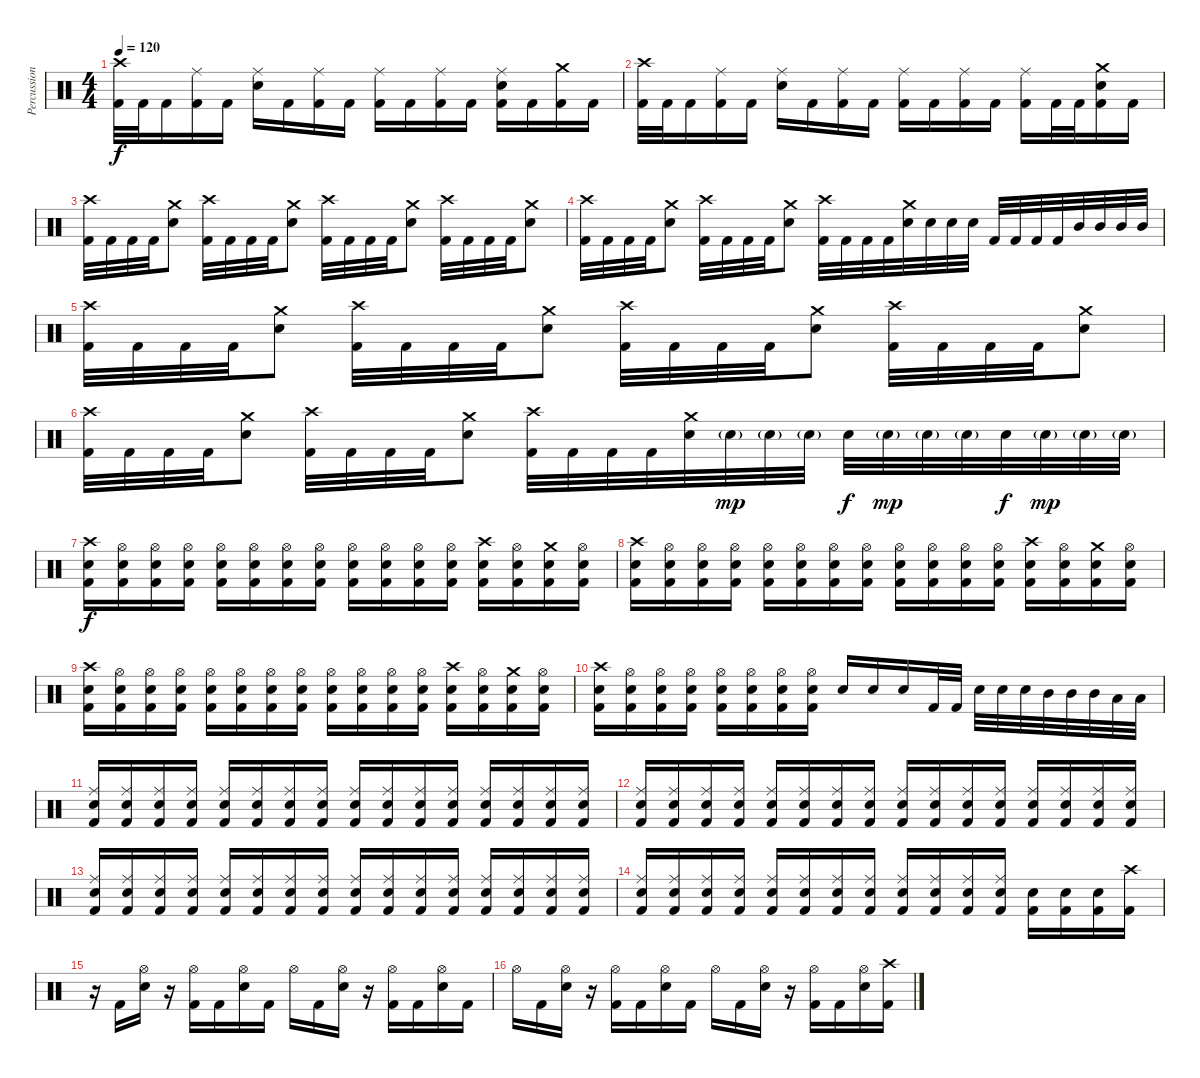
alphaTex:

\track ("Percussion" "Percussion") {instrument percussion}
\staff {score}
\articulation defaults
\ts (4 4)
\tempo 120
\clef neutral
\ks c
("Crash high (hit)" "Kick (hit) 2").32{dy f} "Kick (hit) 2".32 "Kick (hit) 2".16 ("Ride (middle)" "Kick (hit) 2").16 "Kick (hit) 2".16 ("Ride (middle)" "Electric Snare (hit)").16 "Kick (hit) 2".16 ("Ride (middle)" "Kick (hit) 2").16 "Kick (hit) 2".16 ("Ride (middle)" "Kick (hit) 2").16 "Kick (hit) 2".16 ("Ride (middle)" "Kick (hit) 2").16 "Kick (hit) 2".16 ("Ride (middle)" "Electric Snare (hit)" "Kick (hit) 2").16 "Kick (hit) 2".16 ("Crash medium (hit)" "Kick (hit) 2").16 "Kick (hit) 2".16 |
("Crash high (hit)" "Kick (hit) 2").32 "Kick (hit) 2".32 "Kick (hit) 2".16 ("Ride (middle)" "Kick (hit) 2").16 "Kick (hit) 2".16 ("Ride (middle)" "Electric Snare (hit)").16 "Kick (hit) 2".16 ("Ride (middle)" "Kick (hit) 2").16 "Kick (hit) 2".16 ("Ride (middle)" "Kick (hit) 2").16 "Kick (hit) 2".16 ("Ride (middle)" "Kick (hit) 2").16 "Kick (hit) 2".16 ("Ride (middle)" "Kick (hit) 2").16 "Kick (hit) 2".32 "Kick (hit) 2".32 ("Crash medium (hit)" "Electric Snare (hit)" "Kick (hit) 2").16 "Kick (hit) 2".16 |
("Crash high (hit)" "Kick (hit) 2").32 "Kick (hit) 2".32 "Kick (hit) 2".32 "Kick (hit) 2".32 ("Crash medium (hit)" "Electric Snare (hit)").8 ("Crash high (hit)" "Kick (hit) 2").32 "Kick (hit) 2".32 "Kick (hit) 2".32 "Kick (hit) 2".32 ("Crash medium (hit)" "Electric Snare (hit)").8 ("Crash high (hit)" "Kick (hit) 2").32 "Kick (hit) 2".32 "Kick (hit) 2".32 "Kick (hit) 2".32 ("Crash medium (hit)" "Electric Snare (hit)").8 ("Crash high (hit)" "Kick (hit) 2").32 "Kick (hit) 2".32 "Kick (hit) 2".32 "Kick (hit) 2".32 ("Crash medium (hit)" "Electric Snare (hit)").8 |
("Crash high (hit)" "Kick (hit) 2").32 "Kick (hit) 2".32 "Kick (hit) 2".32 "Kick (hit) 2".32 ("Crash medium (hit)" "Electric Snare (hit)").8 ("Crash high (hit)" "Kick (hit) 2").32 "Kick (hit) 2".32 "Kick (hit) 2".32 "Kick (hit) 2".32 ("Crash medium (hit)" "Electric Snare (hit)").8 ("Crash high (hit)" "Kick (hit) 2").32 "Kick (hit) 2".32 "Kick (hit) 2".32 "Kick (hit) 2".32 ("Crash medium (hit)" "Electric Snare (hit)").32 "Electric Snare (hit)".32 "Electric Snare (hit)".32 "Electric Snare (hit)".32 "Kick (hit) 2".32 "Kick (hit) 2".32 "Kick (hit) 2".32 "Kick (hit) 2".32 "Mid Tom (hit)".32 "Mid Tom (hit)".32 "Mid Tom (hit)".32 "Mid Tom (hit)".32 |
("Crash high (hit)" "Kick (hit) 2").32 "Kick (hit) 2".32 "Kick (hit) 2".32 "Kick (hit) 2".32 ("Crash medium (hit)" "Electric Snare (hit)").8 ("Crash high (hit)" "Kick (hit) 2").32 "Kick (hit) 2".32 "Kick (hit) 2".32 "Kick (hit) 2".32 ("Crash medium (hit)" "Electric Snare (hit)").8 ("Crash high (hit)" "Kick (hit) 2").32 "Kick (hit) 2".32 "Kick (hit) 2".32 "Kick (hit) 2".32 ("Crash medium (hit)" "Electric Snare (hit)").8 ("Crash high (hit)" "Kick (hit) 2").32 "Kick (hit) 2".32 "Kick (hit) 2".32 "Kick (hit) 2".32 ("Crash medium (hit)" "Electric Snare (hit)").8 |
("Crash high (hit)" "Kick (hit) 2").32 "Kick (hit) 2".32 "Kick (hit) 2".32 "Kick (hit) 2".32 ("Crash medium (hit)" "Electric Snare (hit)").8 ("Crash high (hit)" "Kick (hit) 2").32 "Kick (hit) 2".32 "Kick (hit) 2".32 "Kick (hit) 2".32 ("Crash medium (hit)" "Electric Snare (hit)").8 ("Crash high (hit)" "Kick (hit) 2").32 "Kick (hit) 2".32 "Kick (hit) 2".32 "Kick (hit) 2".32 ("Crash medium (hit)" "Electric Snare (hit)").32 "Electric Snare (hit)"{g}.32{dy mp} "Electric Snare (hit)"{g}.32 "Electric Snare (hit)"{g}.32 "Electric Snare (hit)".32{dy f} "Electric Snare (hit)"{g}.32{dy mp} "Electric Snare (hit)"{g}.32 "Electric Snare (hit)"{g}.32 "Electric Snare (hit)".32{dy f} "Electric Snare (hit)"{g}.32{dy mp} "Electric Snare (hit)"{g}.32 "Electric Snare (hit)"{g}.32 |
("Crash high (hit)" "Electric Snare (hit)" "Kick (hit) 2").16{dy f} ("Hi-Hat (open)" "Electric Snare (hit)" "Kick (hit) 2").16 ("Hi-Hat (open)" "Electric Snare (hit)" "Kick (hit) 2").16 ("Hi-Hat (open)" "Electric Snare (hit)" "Kick (hit) 2").16 ("Hi-Hat (open)" "Electric Snare (hit)" "Kick (hit) 2").16 ("Hi-Hat (open)" "Electric Snare (hit)" "Kick (hit) 2").16 ("Hi-Hat (open)" "Electric Snare (hit)" "Kick (hit) 2").16 ("Hi-Hat (open)" "Electric Snare (hit)" "Kick (hit) 2").16 ("Hi-Hat (open)" "Electric Snare (hit)" "Kick (hit) 2").16 ("Hi-Hat (open)" "Electric Snare (hit)" "Kick (hit) 2").16 ("Hi-Hat (open)" "Electric Snare (hit)" "Kick (hit) 2").16 ("Hi-Hat (open)" "Electric Snare (hit)" "Kick (hit) 2").16 ("Crash high (hit)" "Electric Snare (hit)" "Kick (hit) 2").16 ("Hi-Hat (open)" "Electric Snare (hit)" "Kick (hit) 2").16 ("Crash medium (hit)" "Electric Snare (hit)" "Kick (hit) 2").16 ("Hi-Hat (open)" "Electric Snare (hit)" "Kick (hit) 2").16 |
("Crash high (hit)" "Electric Snare (hit)" "Kick (hit) 2").16 ("Hi-Hat (open)" "Electric Snare (hit)" "Kick (hit) 2").16 ("Hi-Hat (open)" "Electric Snare (hit)" "Kick (hit) 2").16 ("Hi-Hat (open)" "Electric Snare (hit)" "Kick (hit) 2").16 ("Hi-Hat (open)" "Electric Snare (hit)" "Kick (hit) 2").16 ("Hi-Hat (open)" "Electric Snare (hit)" "Kick (hit) 2").16 ("Hi-Hat (open)" "Electric Snare (hit)" "Kick (hit) 2").16 ("Hi-Hat (open)" "Electric Snare (hit)" "Kick (hit) 2").16 ("Hi-Hat (open)" "Electric Snare (hit)" "Kick (hit) 2").16 ("Hi-Hat (open)" "Electric Snare (hit)" "Kick (hit) 2").16 ("Hi-Hat (open)" "Electric Snare (hit)" "Kick (hit) 2").16 ("Hi-Hat (open)" "Electric Snare (hit)" "Kick (hit) 2").16 ("Crash high (hit)" "Electric Snare (hit)" "Kick (hit) 2").16 ("Hi-Hat (open)" "Electric Snare (hit)" "Kick (hit) 2").16 ("Crash medium (hit)" "Electric Snare (hit)" "Kick (hit) 2").16 ("Hi-Hat (open)" "Electric Snare (hit)" "Kick (hit) 2").16 |
("Crash high (hit)" "Electric Snare (hit)" "Kick (hit) 2").16 ("Hi-Hat (open)" "Electric Snare (hit)" "Kick (hit) 2").16 ("Hi-Hat (open)" "Electric Snare (hit)" "Kick (hit) 2").16 ("Hi-Hat (open)" "Electric Snare (hit)" "Kick (hit) 2").16 ("Hi-Hat (open)" "Electric Snare (hit)" "Kick (hit) 2").16 ("Hi-Hat (open)" "Electric Snare (hit)" "Kick (hit) 2").16 ("Hi-Hat (open)" "Electric Snare (hit)" "Kick (hit) 2").16 ("Hi-Hat (open)" "Electric Snare (hit)" "Kick (hit) 2").16 ("Hi-Hat (open)" "Electric Snare (hit)" "Kick (hit) 2").16 ("Hi-Hat (open)" "Electric Snare (hit)" "Kick (hit) 2").16 ("Hi-Hat (open)" "Electric Snare (hit)" "Kick (hit) 2").16 ("Hi-Hat (open)" "Electric Snare (hit)" "Kick (hit) 2").16 ("Crash high (hit)" "Electric Snare (hit)" "Kick (hit) 2").16 ("Hi-Hat (open)" "Electric Snare (hit)" "Kick (hit) 2").16 ("Crash medium (hit)" "Electric Snare (hit)" "Kick (hit) 2").16 ("Hi-Hat (open)" "Electric Snare (hit)" "Kick (hit) 2").16 |
("Crash high (hit)" "Electric Snare (hit)" "Kick (hit) 2").16 ("Hi-Hat (open)" "Electric Snare (hit)" "Kick (hit) 2").16 ("Hi-Hat (open)" "Electric Snare (hit)" "Kick (hit) 2").16 ("Hi-Hat (open)" "Electric Snare (hit)" "Kick (hit) 2").16 ("Hi-Hat (open)" "Electric Snare (hit)" "Kick (hit) 2").16 ("Hi-Hat (open)" "Electric Snare (hit)" "Kick (hit) 2").16 ("Hi-Hat (open)" "Electric Snare (hit)" "Kick (hit) 2").16 ("Hi-Hat (open)" "Electric Snare (hit)" "Kick (hit) 2").16 "Electric Snare (hit)".16 "Electric Snare (hit)".16 "Electric Snare (hit)".16 "Kick (hit) 2".32 "Kick (hit) 2".32 "Electric Snare (hit)".32 "Electric Snare (hit)".32 "Electric Snare (hit)".32 "Mid Tom (hit)".32 "Mid Tom (hit)".32 "Mid Tom (hit)".32 "Low Tom (hit)".32 "Low Tom (hit)".32 |
("Ride (middle)" "Electric Snare (hit)" "Kick (hit) 2").16 ("Ride (middle)" "Electric Snare (hit)" "Kick (hit) 2").16 ("Ride (middle)" "Electric Snare (hit)" "Kick (hit) 2").16 ("Ride (middle)" "Electric Snare (hit)" "Kick (hit) 2").16 ("Ride (middle)" "Electric Snare (hit)" "Kick (hit) 2").16 ("Ride (middle)" "Electric Snare (hit)" "Kick (hit) 2").16 ("Ride (middle)" "Electric Snare (hit)" "Kick (hit) 2").16 ("Ride (middle)" "Electric Snare (hit)" "Kick (hit) 2").16 ("Ride (middle)" "Electric Snare (hit)" "Kick (hit) 2").16 ("Ride (middle)" "Electric Snare (hit)" "Kick (hit) 2").16 ("Ride (middle)" "Electric Snare (hit)" "Kick (hit) 2").16 ("Ride (middle)" "Electric Snare (hit)" "Kick (hit) 2").16 ("Ride (middle)" "Electric Snare (hit)" "Kick (hit) 2").16 ("Ride (middle)" "Electric Snare (hit)" "Kick (hit) 2").16 ("Ride (middle)" "Electric Snare (hit)" "Kick (hit) 2").16 ("Ride (middle)" "Electric Snare (hit)" "Kick (hit) 2").16 |
("Ride (middle)" "Electric Snare (hit)" "Kick (hit) 2").16 ("Ride (middle)" "Electric Snare (hit)" "Kick (hit) 2").16 ("Ride (middle)" "Electric Snare (hit)" "Kick (hit) 2").16 ("Ride (middle)" "Electric Snare (hit)" "Kick (hit) 2").16 ("Ride (middle)" "Electric Snare (hit)" "Kick (hit) 2").16 ("Ride (middle)" "Electric Snare (hit)" "Kick (hit) 2").16 ("Ride (middle)" "Electric Snare (hit)" "Kick (hit) 2").16 ("Ride (middle)" "Electric Snare (hit)" "Kick (hit) 2").16 ("Ride (middle)" "Electric Snare (hit)" "Kick (hit) 2").16 ("Ride (middle)" "Electric Snare (hit)" "Kick (hit) 2").16 ("Ride (middle)" "Electric Snare (hit)" "Kick (hit) 2").16 ("Ride (middle)" "Electric Snare (hit)" "Kick (hit) 2").16 ("Ride (middle)" "Electric Snare (hit)" "Kick (hit) 2").16 ("Ride (middle)" "Electric Snare (hit)" "Kick (hit) 2").16 ("Ride (middle)" "Electric Snare (hit)" "Kick (hit) 2").16 ("Ride (middle)" "Electric Snare (hit)" "Kick (hit) 2").16 |
("Ride (middle)" "Electric Snare (hit)" "Kick (hit) 2").16 ("Ride (middle)" "Electric Snare (hit)" "Kick (hit) 2").16 ("Ride (middle)" "Electric Snare (hit)" "Kick (hit) 2").16 ("Ride (middle)" "Electric Snare (hit)" "Kick (hit) 2").16 ("Ride (middle)" "Electric Snare (hit)" "Kick (hit) 2").16 ("Ride (middle)" "Electric Snare (hit)" "Kick (hit) 2").16 ("Ride (middle)" "Electric Snare (hit)" "Kick (hit) 2").16 ("Ride (middle)" "Electric Snare (hit)" "Kick (hit) 2").16 ("Ride (middle)" "Electric Snare (hit)" "Kick (hit) 2").16 ("Ride (middle)" "Electric Snare (hit)" "Kick (hit) 2").16 ("Ride (middle)" "Electric Snare (hit)" "Kick (hit) 2").16 ("Ride (middle)" "Electric Snare (hit)" "Kick (hit) 2").16 ("Ride (middle)" "Electric Snare (hit)" "Kick (hit) 2").16 ("Ride (middle)" "Electric Snare (hit)" "Kick (hit) 2").16 ("Ride (middle)" "Electric Snare (hit)" "Kick (hit) 2").16 ("Ride (middle)" "Electric Snare (hit)" "Kick (hit) 2").16 |
("Ride (middle)" "Electric Snare (hit)" "Kick (hit) 2").16 ("Ride (middle)" "Electric Snare (hit)" "Kick (hit) 2").16 ("Ride (middle)" "Electric Snare (hit)" "Kick (hit) 2").16 ("Ride (middle)" "Electric Snare (hit)" "Kick (hit) 2").16 ("Ride (middle)" "Electric Snare (hit)" "Kick (hit) 2").16 ("Ride (middle)" "Electric Snare (hit)" "Kick (hit) 2").16 ("Ride (middle)" "Electric Snare (hit)" "Kick (hit) 2").16 ("Ride (middle)" "Electric Snare (hit)" "Kick (hit) 2").16 ("Ride (middle)" "Electric Snare (hit)" "Kick (hit) 2").16 ("Ride (middle)" "Electric Snare (hit)" "Kick (hit) 2").16 ("Ride (middle)" "Electric Snare (hit)" "Kick (hit) 2").16 ("Ride (middle)" "Electric Snare (hit)" "Kick (hit) 2").16 ("Electric Snare (hit)" "Kick (hit) 2").16 ("Electric Snare (hit)" "Kick (hit) 2").16 ("Electric Snare (hit)" "Kick (hit) 2").16 ("Crash high (hit)" "Kick (hit) 2").16 |
r.16 "Kick (hit) 2".16 ("Hi-Hat (open)" "Electric Snare (hit)").16 r.16 ("Hi-Hat (open)" "Kick (hit) 2").16 "Kick (hit) 2".16 ("Hi-Hat (open)" "Electric Snare (hit)").16 "Kick (hit) 2".16 "Hi-Hat (open)".16 "Kick (hit) 2".16 ("Hi-Hat (open)" "Electric Snare (hit)").16 r.16 ("Hi-Hat (open)" "Kick (hit) 2").16 "Kick (hit) 2".16 ("Hi-Hat (open)" "Electric Snare (hit)").16 "Kick (hit) 2".16 |
"Hi-Hat (open)".16 "Kick (hit) 2".16 ("Hi-Hat (open)" "Electric Snare (hit)").16 r.16 ("Hi-Hat (open)" "Kick (hit) 2").16 "Kick (hit) 2".16 ("Hi-Hat (open)" "Electric Snare (hit)").16 "Kick (hit) 2".16 "Hi-Hat (open)".16 "Kick (hit) 2".16 ("Hi-Hat (open)" "Electric Snare (hit)").16 r.16 ("Hi-Hat (open)" "Kick (hit) 2").16 "Kick (hit) 2".16 ("Hi-Hat (open)" "Electric Snare (hit)").16 ("Crash high (hit)" "Kick (hit) 2").16
